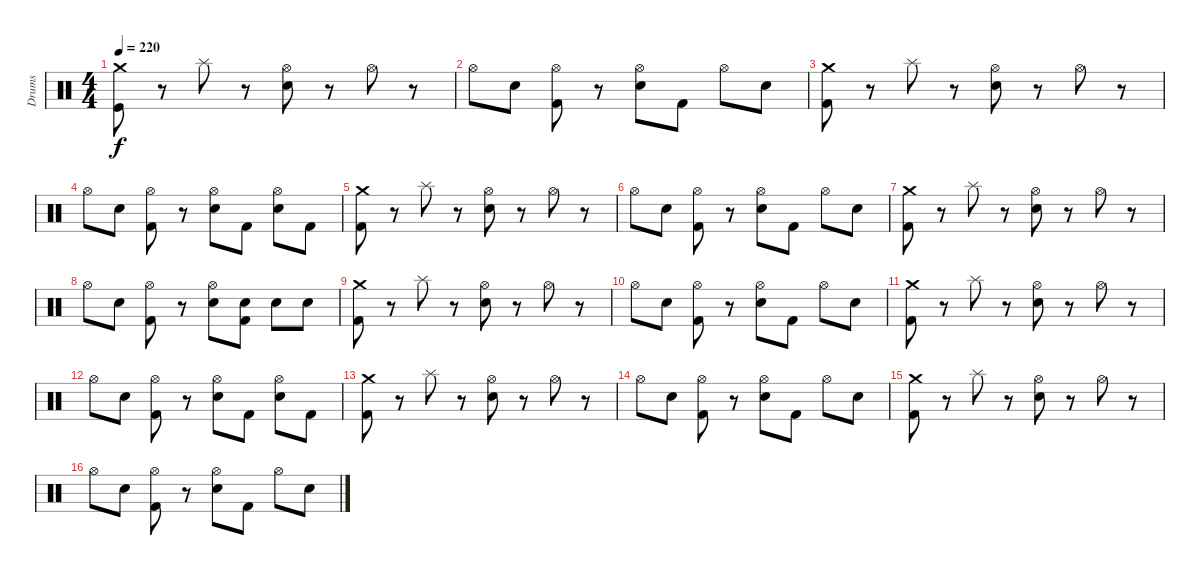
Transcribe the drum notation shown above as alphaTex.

\track ("Drums" "Drums") {instrument percussion}
\staff {score}
\articulation defaults
\ts (4 4)
\tempo 220
\clef neutral
\ks c
("Crash medium (hit)" "Kick (hit)").8{dy f} r.8 "Splash (hit)".8 r.8 ("Hi-Hat (open)" "Electric Snare (hit)").8 r.8 "Hi-Hat (open)".8 r.8 |
"Hi-Hat (open)".8 "Electric Snare (hit)".8 ("Hi-Hat (open)" "Kick (hit) 2").8 r.8 ("Hi-Hat (open)" "Electric Snare (hit)").8 "Kick (hit) 2".8 "Hi-Hat (open)".8 "Electric Snare (hit)".8 |
("Crash medium (hit)" "Kick (hit) 2").8 r.8 "Splash (hit)".8 r.8 ("Hi-Hat (open)" "Electric Snare (hit)").8 r.8 "Hi-Hat (open)".8 r.8 |
"Hi-Hat (open)".8 "Electric Snare (hit)".8 ("Hi-Hat (open)" "Kick (hit) 2").8 r.8 ("Hi-Hat (open)" "Electric Snare (hit)").8 "Kick (hit) 2".8 ("Hi-Hat (open)" "Electric Snare (hit)").8 "Kick (hit) 2".8 |
("Crash medium (hit)" "Kick (hit) 2").8 r.8 "Splash (hit)".8 r.8 ("Hi-Hat (open)" "Electric Snare (hit)").8 r.8 "Hi-Hat (open)".8 r.8 |
"Hi-Hat (open)".8 "Electric Snare (hit)".8 ("Hi-Hat (open)" "Kick (hit) 2").8 r.8 ("Hi-Hat (open)" "Electric Snare (hit)").8 "Kick (hit) 2".8 "Hi-Hat (open)".8 "Electric Snare (hit)".8 |
("Crash medium (hit)" "Kick (hit) 2").8 r.8 "Splash (hit)".8 r.8 ("Hi-Hat (open)" "Electric Snare (hit)").8 r.8 "Hi-Hat (open)".8 r.8 |
"Hi-Hat (open)".8 "Electric Snare (hit)".8 ("Hi-Hat (open)" "Kick (hit) 2").8 r.8 ("Hi-Hat (open)" "Electric Snare (hit)").8 ("Electric Snare (hit)" "Kick (hit) 2").8 "Electric Snare (hit)".8 "Electric Snare (hit)".8 |
("Crash medium (hit)" "Kick (hit) 2").8 r.8 "Splash (hit)".8 r.8 ("Hi-Hat (open)" "Electric Snare (hit)").8 r.8 "Hi-Hat (open)".8 r.8 |
"Hi-Hat (open)".8 "Electric Snare (hit)".8 ("Hi-Hat (open)" "Kick (hit) 2").8 r.8 ("Hi-Hat (open)" "Electric Snare (hit)").8 "Kick (hit) 2".8 "Hi-Hat (open)".8 "Electric Snare (hit)".8 |
("Crash medium (hit)" "Kick (hit) 2").8 r.8 "Splash (hit)".8 r.8 ("Hi-Hat (open)" "Electric Snare (hit)").8 r.8 "Hi-Hat (open)".8 r.8 |
"Hi-Hat (open)".8 "Electric Snare (hit)".8 ("Hi-Hat (open)" "Kick (hit) 2").8 r.8 ("Hi-Hat (open)" "Electric Snare (hit)").8 "Kick (hit) 2".8 ("Hi-Hat (open)" "Electric Snare (hit)").8 "Kick (hit) 2".8 |
("Crash medium (hit)" "Kick (hit) 2").8 r.8 "Splash (hit)".8 r.8 ("Hi-Hat (open)" "Electric Snare (hit)").8 r.8 "Hi-Hat (open)".8 r.8 |
"Hi-Hat (open)".8 "Electric Snare (hit)".8 ("Hi-Hat (open)" "Kick (hit) 2").8 r.8 ("Hi-Hat (open)" "Electric Snare (hit)").8 "Kick (hit) 2".8 "Hi-Hat (open)".8 "Electric Snare (hit)".8 |
("Crash medium (hit)" "Kick (hit) 2").8 r.8 "Splash (hit)".8 r.8 ("Hi-Hat (open)" "Electric Snare (hit)").8 r.8 "Hi-Hat (open)".8 r.8 |
"Hi-Hat (open)".8 "Electric Snare (hit)".8 ("Hi-Hat (open)" "Kick (hit) 2").8 r.8 ("Hi-Hat (open)" "Electric Snare (hit)").8 "Kick (hit) 2".8 "Hi-Hat (open)".8 "Electric Snare (hit)".8
